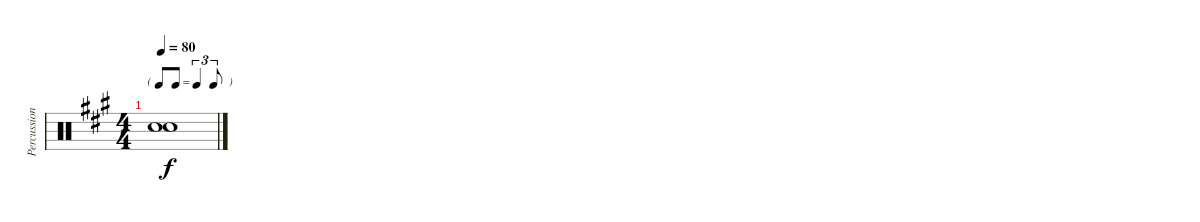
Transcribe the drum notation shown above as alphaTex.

\track ("Percussion" "Percussion") {instrument percussion}
\staff {score}
\articulation defaults
\ts (4 4)
\tf triplet8th
\tempo 80
\clef neutral
\ks a
("Snare (hit)"{t} "Snare (hit)"{t}).1{dy f}
